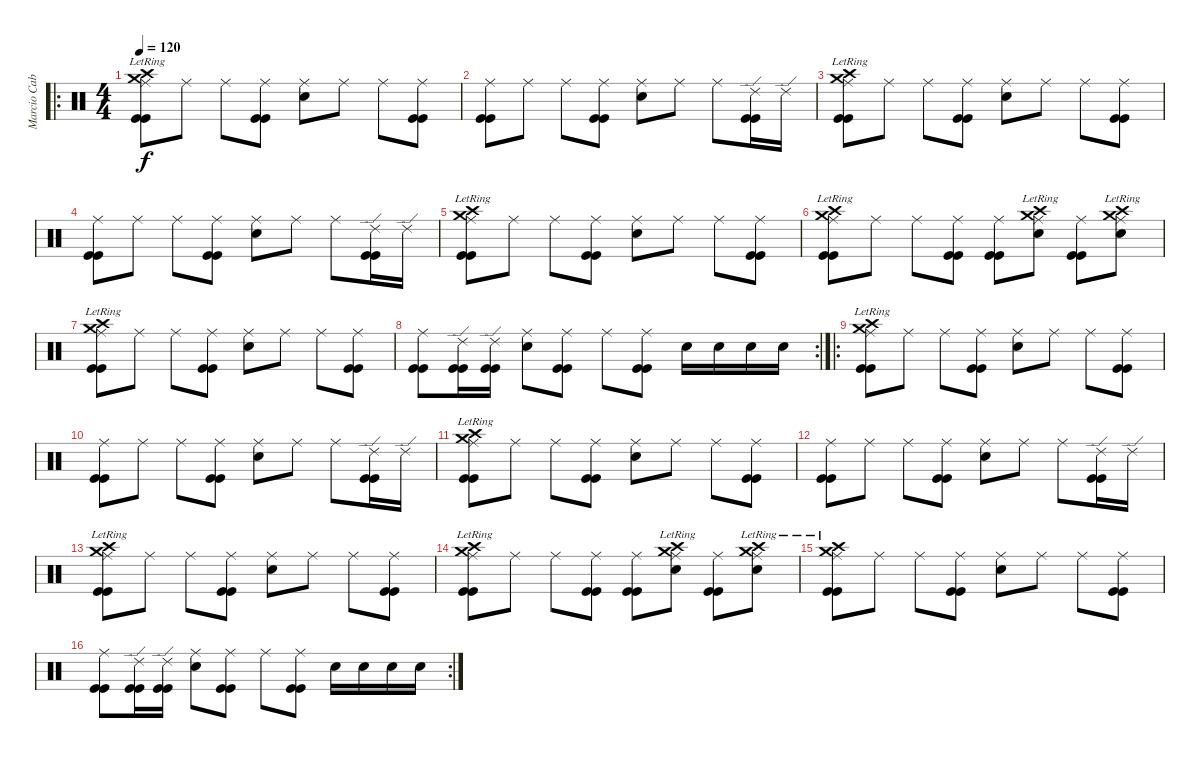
\track ("Marcio Cabrita" "Marcio Cab") {instrument percussion}
\staff {score}
\articulation defaults
\ro
\ts (4 4)
\tempo 120
\clef neutral
\ks c
("Crash high (hit)"{lr} "Crash medium (hit)"{lr} "Ride (middle)" "Kick (hit)" "Kick (hit)").8{dy f} "Ride (middle)".8 "Ride (middle)".8 ("Ride (middle)" "Kick (hit)" "Kick (hit)").8 ("Snare (hit) 2" "Ride (middle)").8 "Ride (middle)".8 "Ride (middle)".8 ("Ride (middle)" "Kick (hit)" "Kick (hit)").8 |
("Ride (middle)" "Kick (hit)" "Kick (hit)").8 "Ride (middle)".8 "Ride (middle)".8 ("Ride (middle)" "Kick (hit)" "Kick (hit)").8 ("Snare (hit) 2" "Ride (middle)").8 "Ride (middle)".8 "Ride (middle)".8 ("Ride (edge) 2" "Kick (hit)" "Kick (hit)").16 "Ride (edge) 2".16 |
("Crash high (hit)"{lr} "Crash medium (hit)"{lr} "Ride (middle)" "Kick (hit)" "Kick (hit)").8 "Ride (middle)".8 "Ride (middle)".8 ("Ride (middle)" "Kick (hit)" "Kick (hit)").8 ("Snare (hit) 2" "Ride (middle)").8 "Ride (middle)".8 "Ride (middle)".8 ("Ride (middle)" "Kick (hit)" "Kick (hit)").8 |
("Ride (middle)" "Kick (hit)" "Kick (hit)").8 "Ride (middle)".8 "Ride (middle)".8 ("Ride (middle)" "Kick (hit)" "Kick (hit)").8 ("Snare (hit) 2" "Ride (middle)").8 "Ride (middle)".8 "Ride (middle)".8 ("Ride (edge) 2" "Kick (hit)" "Kick (hit)").16 "Ride (edge) 2".16 |
("Crash high (hit)"{lr} "Crash medium (hit)"{lr} "Ride (middle)" "Kick (hit)" "Kick (hit)").8 "Ride (middle)".8 "Ride (middle)".8 ("Ride (middle)" "Kick (hit)" "Kick (hit)").8 ("Snare (hit) 2" "Ride (middle)").8 "Ride (middle)".8 "Ride (middle)".8 ("Ride (middle)" "Kick (hit)" "Kick (hit)").8 |
("Crash high (hit)"{lr} "Crash medium (hit)"{lr} "Ride (middle)" "Kick (hit)" "Kick (hit)").8 "Ride (middle)".8 "Ride (middle)".8 ("Ride (middle)" "Kick (hit)" "Kick (hit)").8 ("Ride (middle)" "Kick (hit)" "Kick (hit)").8 ("Crash high (hit)"{lr} "Crash medium (hit)"{lr} "Snare (hit) 2" "Ride (middle)").8 ("Ride (middle)" "Kick (hit)" "Kick (hit)").8 ("Crash high (hit)"{lr} "Crash medium (hit)"{lr} "Snare (hit) 2" "Ride (middle)").8 |
("Crash high (hit)"{lr} "Crash medium (hit)"{lr} "Ride (middle)" "Kick (hit)" "Kick (hit)").8 "Ride (middle)".8 "Ride (middle)".8 ("Ride (middle)" "Kick (hit)" "Kick (hit)").8 ("Snare (hit) 2" "Ride (middle)").8 "Ride (middle)".8 "Ride (middle)".8 ("Ride (middle)" "Kick (hit)" "Kick (hit)").8 |
\rc 2
("Ride (middle)" "Kick (hit)" "Kick (hit)").8 ("Ride (edge) 2" "Kick (hit)" "Kick (hit)").16 ("Ride (edge) 2" "Kick (hit)" "Kick (hit)").16 ("Snare (hit) 2" "Ride (middle)").8 ("Ride (middle)" "Kick (hit)" "Kick (hit)").8 "Ride (middle)".8 ("Ride (middle)" "Kick (hit)" "Kick (hit)").8 "Snare (hit) 2".16 "Snare (hit) 2".16 "Snare (hit) 2".16 "Snare (hit) 2".16 |
\ro
("Crash high (hit)"{lr} "Crash medium (hit)"{lr} "Ride (middle)" "Kick (hit)" "Kick (hit)").8 "Ride (middle)".8 "Ride (middle)".8 ("Ride (middle)" "Kick (hit)" "Kick (hit)").8 ("Snare (hit) 2" "Ride (middle)").8 "Ride (middle)".8 "Ride (middle)".8 ("Ride (middle)" "Kick (hit)" "Kick (hit)").8 |
("Ride (middle)" "Kick (hit)" "Kick (hit)").8 "Ride (middle)".8 "Ride (middle)".8 ("Ride (middle)" "Kick (hit)" "Kick (hit)").8 ("Snare (hit) 2" "Ride (middle)").8 "Ride (middle)".8 "Ride (middle)".8 ("Ride (edge) 2" "Kick (hit)" "Kick (hit)").16 "Ride (edge) 2".16 |
("Crash high (hit)"{lr} "Crash medium (hit)"{lr} "Ride (middle)" "Kick (hit)" "Kick (hit)").8 "Ride (middle)".8 "Ride (middle)".8 ("Ride (middle)" "Kick (hit)" "Kick (hit)").8 ("Snare (hit) 2" "Ride (middle)").8 "Ride (middle)".8 "Ride (middle)".8 ("Ride (middle)" "Kick (hit)" "Kick (hit)").8 |
("Ride (middle)" "Kick (hit)" "Kick (hit)").8 "Ride (middle)".8 "Ride (middle)".8 ("Ride (middle)" "Kick (hit)" "Kick (hit)").8 ("Snare (hit) 2" "Ride (middle)").8 "Ride (middle)".8 "Ride (middle)".8 ("Ride (edge) 2" "Kick (hit)" "Kick (hit)").16 "Ride (edge) 2".16 |
("Crash high (hit)"{lr} "Crash medium (hit)"{lr} "Ride (middle)" "Kick (hit)" "Kick (hit)").8 "Ride (middle)".8 "Ride (middle)".8 ("Ride (middle)" "Kick (hit)" "Kick (hit)").8 ("Snare (hit) 2" "Ride (middle)").8 "Ride (middle)".8 "Ride (middle)".8 ("Ride (middle)" "Kick (hit)" "Kick (hit)").8 |
("Crash high (hit)"{lr} "Crash medium (hit)"{lr} "Ride (middle)" "Kick (hit)" "Kick (hit)").8 "Ride (middle)".8 "Ride (middle)".8 ("Ride (middle)" "Kick (hit)" "Kick (hit)").8 ("Ride (middle)" "Kick (hit)" "Kick (hit)").8 ("Crash high (hit)"{lr} "Crash medium (hit)"{lr} "Snare (hit) 2" "Ride (middle)").8 ("Ride (middle)" "Kick (hit)" "Kick (hit)").8 ("Crash high (hit)"{lr} "Crash medium (hit)"{lr} "Snare (hit) 2" "Ride (middle)").8 |
("Crash high (hit)"{lr} "Crash medium (hit)"{lr} "Ride (middle)" "Kick (hit)" "Kick (hit)").8 "Ride (middle)".8 "Ride (middle)".8 ("Ride (middle)" "Kick (hit)" "Kick (hit)").8 ("Snare (hit) 2" "Ride (middle)").8 "Ride (middle)".8 "Ride (middle)".8 ("Ride (middle)" "Kick (hit)" "Kick (hit)").8 |
\rc 2
("Ride (middle)" "Kick (hit)" "Kick (hit)").8 ("Ride (edge) 2" "Kick (hit)" "Kick (hit)").16 ("Ride (edge) 2" "Kick (hit)" "Kick (hit)").16 ("Snare (hit) 2" "Ride (middle)").8 ("Ride (middle)" "Kick (hit)" "Kick (hit)").8 "Ride (middle)".8 ("Ride (middle)" "Kick (hit)" "Kick (hit)").8 "Snare (hit) 2".16 "Snare (hit) 2".16 "Snare (hit) 2".16 "Snare (hit) 2".16
